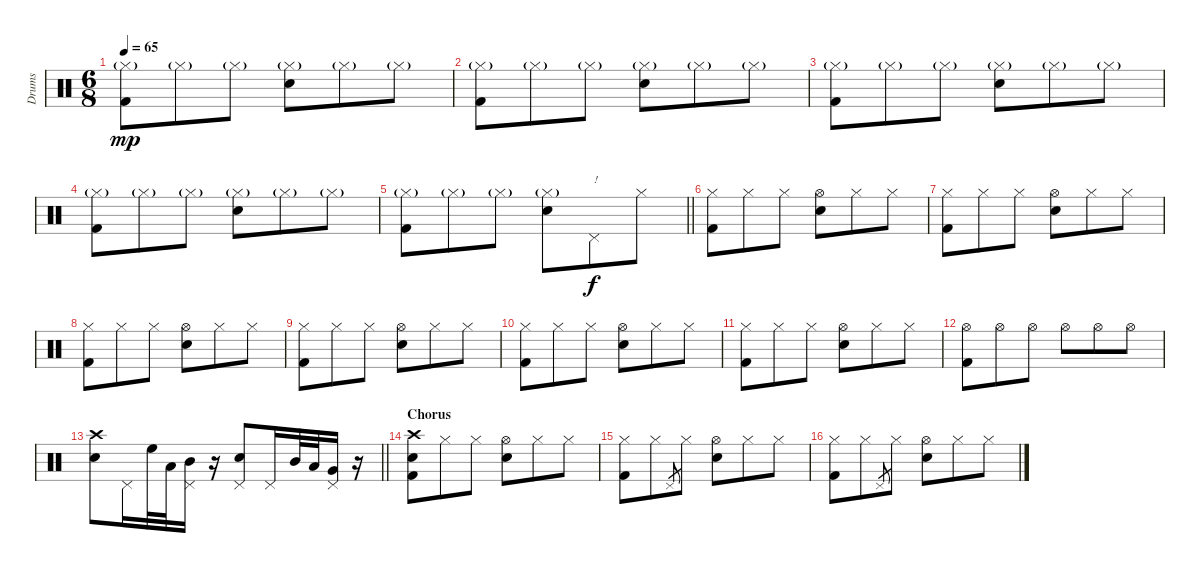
\track ("Drums" "Drums") {instrument percussion}
\staff {score}
\articulation defaults
\ts (6 8)
\tempo 65
\clef neutral
\ks c
("Hi-Hat (closed)"{g} "Kick (hit) 2").8{dy mp} "Hi-Hat (closed)"{g}.8 "Hi-Hat (closed)"{g}.8 ("Hi-Hat (closed)"{g} "Snare (hit) 2").8 "Hi-Hat (closed)"{g}.8 "Hi-Hat (closed)"{g}.8 |
("Hi-Hat (closed)"{g} "Kick (hit) 2").8 "Hi-Hat (closed)"{g}.8 "Hi-Hat (closed)"{g}.8 ("Hi-Hat (closed)"{g} "Snare (hit) 2").8 "Hi-Hat (closed)"{g}.8 "Hi-Hat (closed)"{g}.8 |
("Hi-Hat (closed)"{g} "Kick (hit) 2").8 "Hi-Hat (closed)"{g}.8 "Hi-Hat (closed)"{g}.8 ("Hi-Hat (closed)"{g} "Snare (hit) 2").8 "Hi-Hat (closed)"{g}.8 "Hi-Hat (closed)"{g}.8 |
("Hi-Hat (closed)"{g} "Kick (hit) 2").8 "Hi-Hat (closed)"{g}.8 "Hi-Hat (closed)"{g}.8 ("Hi-Hat (closed)"{g} "Snare (hit) 2").8 "Hi-Hat (closed)"{g}.8 "Hi-Hat (closed)"{g}.8 |
\barLineRight lightlight
("Hi-Hat (closed)"{g} "Kick (hit) 2").8 "Hi-Hat (closed)"{g}.8 "Hi-Hat (closed)"{g}.8 ("Hi-Hat (closed)"{g} "Snare (hit) 2").8 "Pedal Hi-Hat (hit)".8{txt "!" dy f} "Hi-Hat (closed)".8 |
\section ("" "")
("Hi-Hat (closed)" "Kick (hit) 2").8 "Hi-Hat (closed)".8 "Hi-Hat (closed)".8 ("Hi-Hat (open)" "Snare (hit) 2").8 "Hi-Hat (closed)".8 "Hi-Hat (closed)".8 |
("Hi-Hat (closed)" "Kick (hit) 2").8 "Hi-Hat (closed)".8 "Hi-Hat (closed)".8 ("Hi-Hat (open)" "Snare (hit) 2").8 "Hi-Hat (closed)".8 "Hi-Hat (closed)".8 |
("Hi-Hat (closed)" "Kick (hit) 2").8 "Hi-Hat (closed)".8 "Hi-Hat (closed)".8 ("Hi-Hat (open)" "Snare (hit) 2").8 "Hi-Hat (closed)".8 "Hi-Hat (closed)".8 |
("Hi-Hat (closed)" "Kick (hit) 2").8 "Hi-Hat (closed)".8 "Hi-Hat (closed)".8 ("Hi-Hat (open)" "Snare (hit) 2").8 "Hi-Hat (closed)".8 "Hi-Hat (closed)".8 |
("Hi-Hat (closed)" "Kick (hit) 2").8 "Hi-Hat (closed)".8 "Hi-Hat (closed)".8 ("Hi-Hat (open)" "Snare (hit) 2").8 "Hi-Hat (closed)".8 "Hi-Hat (closed)".8 |
("Hi-Hat (closed)" "Kick (hit) 2").8 "Hi-Hat (closed)".8 "Hi-Hat (closed)".8 ("Hi-Hat (open)" "Snare (hit) 2").8 "Hi-Hat (closed)".8 "Hi-Hat (closed)".8 |
("Hi-Hat (open)" "Kick (hit) 2").8 "Hi-Hat (open)".8 "Hi-Hat (open)".8 "Hi-Hat (open)".8 "Hi-Hat (open)".8 "Hi-Hat (open)".8 |
\barLineRight lightlight
("Crash high (hit)" "Snare (hit) 2").8 "Pedal Hi-Hat (hit)".16 "High Floor Tom (hit)".32 "Low Tom (hit)".32 ("Mid Tom (hit)" "Pedal Hi-Hat (hit)").16 r.16 ("Snare (hit) 2" "Pedal Hi-Hat (hit)").8 "Pedal Hi-Hat (hit)".16 "Mid Tom (hit)".32 "Low Tom (hit)".32 ("Very Low Tom (hit)" "Pedal Hi-Hat (hit)").16 r.16 |
\section ("" "Chorus")
("Crash high (hit)" "Snare (hit) 2" "Kick (hit) 2").8 "Hi-Hat (closed)".8 "Hi-Hat (closed)".8 ("Hi-Hat (open)" "Snare (hit) 2").8 "Hi-Hat (closed)".8 "Hi-Hat (closed)".8 |
("Hi-Hat (closed)" "Kick (hit) 2").8 "Hi-Hat (closed)".8 "Pedal Hi-Hat (hit)".8{gr} "Hi-Hat (closed)".8 ("Hi-Hat (open)" "Snare (hit) 2").8 "Hi-Hat (closed)".8 "Hi-Hat (closed)".8 |
("Hi-Hat (closed)" "Kick (hit) 2").8 "Hi-Hat (closed)".8 "Pedal Hi-Hat (hit)".8{gr} "Hi-Hat (closed)".8 ("Hi-Hat (open)" "Snare (hit) 2").8 "Hi-Hat (closed)".8 "Hi-Hat (closed)".8
